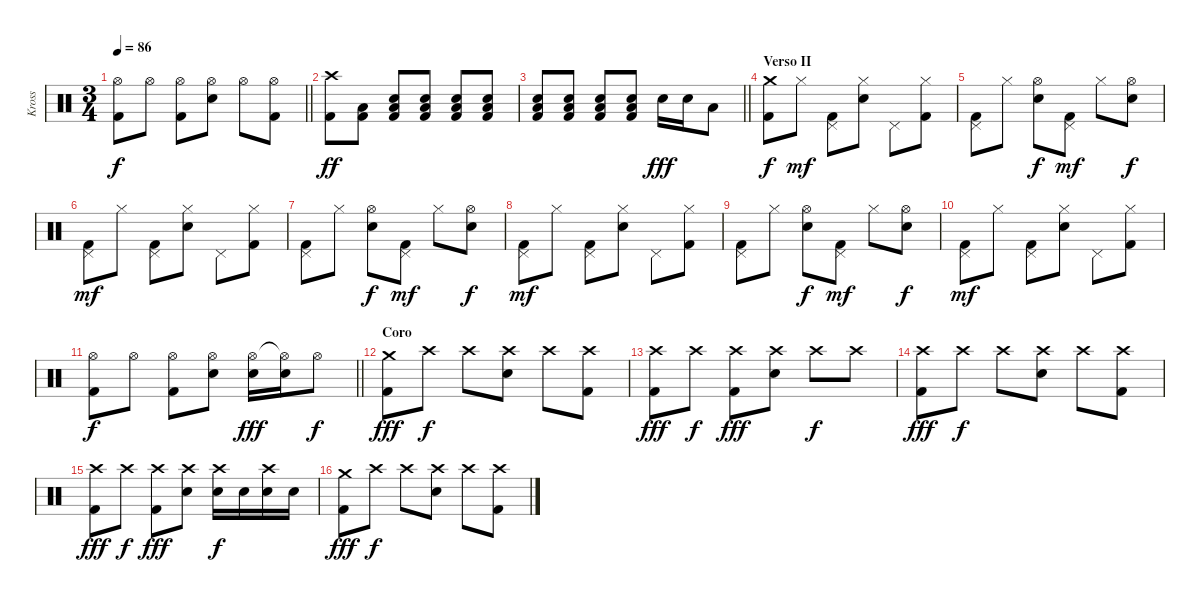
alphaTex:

\track ("Kross" "Kross") {instrument percussion}
\staff {score}
\articulation defaults
\ts (3 4)
\tempo 86
\clef neutral
\barLineRight lightlight
\ks c
("Hi-Hat (open)" "Kick (hit) 2").8{dy f} "Hi-Hat (open)".8 ("Hi-Hat (open)" "Kick (hit) 2").8 ("Hi-Hat (open)" "Electric Snare (hit)").8 "Hi-Hat (open)".8 ("Hi-Hat (open)" "Kick (hit) 2").8 |
("Crash high (hit)" "Kick (hit) 2").8{dy ff} ("Low Floor Tom (hit)" "Kick (hit) 2").8 ("Electric Snare (hit)" "Low Floor Tom (hit)" "Kick (hit) 2").8 ("Electric Snare (hit)" "Low Floor Tom (hit)" "Kick (hit) 2").8 ("Electric Snare (hit)" "Low Floor Tom (hit)" "Kick (hit) 2").8 ("Electric Snare (hit)" "Low Floor Tom (hit)" "Kick (hit) 2").8 |
\barLineRight lightlight
("Electric Snare (hit)" "Low Floor Tom (hit)" "Kick (hit) 2").8 ("Electric Snare (hit)" "Low Floor Tom (hit)" "Kick (hit) 2").8 ("Electric Snare (hit)" "Low Floor Tom (hit)" "Kick (hit) 2").8 ("Electric Snare (hit)" "Low Floor Tom (hit)" "Kick (hit) 2").8 "Electric Snare (hit)".16{dy fff} "Electric Snare (hit)".16 "Low Tom (hit)".8 |
\section ("" "Verso II")
("Crash medium (hit)" "Kick (hit) 2").8{dy f} "Hi-Hat (closed)".8{dy mf} ("Pedal Hi-Hat (hit)" "Kick (hit) 2").8 ("Hi-Hat (closed)" "Electric Snare (hit)").8 "Pedal Hi-Hat (hit)".8 ("Hi-Hat (closed)" "Kick (hit) 2").8 |
("Pedal Hi-Hat (hit)" "Kick (hit) 2").8 "Hi-Hat (closed)".8 ("Hi-Hat (open)" "Electric Snare (hit)").8{dy f} ("Pedal Hi-Hat (hit)" "Kick (hit) 2").8{dy mf} "Hi-Hat (closed)".8 ("Hi-Hat (open)" "Electric Snare (hit)").8{dy f} |
("Pedal Hi-Hat (hit)" "Kick (hit) 2").8{dy mf} "Hi-Hat (closed)".8 ("Pedal Hi-Hat (hit)" "Kick (hit) 2").8 ("Hi-Hat (closed)" "Electric Snare (hit)").8 "Pedal Hi-Hat (hit)".8 ("Hi-Hat (closed)" "Kick (hit) 2").8 |
("Pedal Hi-Hat (hit)" "Kick (hit) 2").8 "Hi-Hat (closed)".8 ("Hi-Hat (open)" "Electric Snare (hit)").8{dy f} ("Pedal Hi-Hat (hit)" "Kick (hit) 2").8{dy mf} "Hi-Hat (closed)".8 ("Hi-Hat (open)" "Electric Snare (hit)").8{dy f} |
("Pedal Hi-Hat (hit)" "Kick (hit) 2").8{dy mf} "Hi-Hat (closed)".8 ("Pedal Hi-Hat (hit)" "Kick (hit) 2").8 ("Hi-Hat (closed)" "Electric Snare (hit)").8 "Pedal Hi-Hat (hit)".8 ("Hi-Hat (closed)" "Kick (hit) 2").8 |
("Pedal Hi-Hat (hit)" "Kick (hit) 2").8 "Hi-Hat (closed)".8 ("Hi-Hat (open)" "Electric Snare (hit)").8{dy f} ("Pedal Hi-Hat (hit)" "Kick (hit) 2").8{dy mf} "Hi-Hat (closed)".8 ("Hi-Hat (open)" "Electric Snare (hit)").8{dy f} |
("Pedal Hi-Hat (hit)" "Kick (hit) 2").8{dy mf} "Hi-Hat (closed)".8 ("Pedal Hi-Hat (hit)" "Kick (hit) 2").8 ("Hi-Hat (closed)" "Electric Snare (hit)").8 "Pedal Hi-Hat (hit)".8 ("Hi-Hat (closed)" "Kick (hit) 2").8 |
\barLineRight lightlight
("Hi-Hat (open)" "Kick (hit) 2").8{dy f} "Hi-Hat (open)".8 ("Hi-Hat (open)" "Kick (hit) 2").8 ("Hi-Hat (open)" "Electric Snare (hit)").8 ("Hi-Hat (open)" "Electric Snare (hit)").16{dy fff} ("Hi-Hat (open)"{t} "Electric Snare (hit)").16 "Hi-Hat (open)".8{dy f} |
\section ("" "Coro")
("Crash medium (hit)" "Kick (hit) 2").8{dy fff} "Crash high (hit)".8{dy f} "Crash high (hit)".8 ("Crash high (hit)" "Electric Snare (hit)").8 "Crash high (hit)".8 ("Crash high (hit)" "Kick (hit) 2").8 |
("Crash high (hit)" "Kick (hit) 2").8{dy fff} "Crash high (hit)".8{dy f} ("Crash high (hit)" "Kick (hit) 2").8{dy fff} ("Crash high (hit)" "Electric Snare (hit)").8 "Crash high (hit)".8{dy f} "Crash high (hit)".8 |
("Crash high (hit)" "Kick (hit) 2").8{dy fff} "Crash high (hit)".8{dy f} "Crash high (hit)".8 ("Crash high (hit)" "Electric Snare (hit)").8 "Crash high (hit)".8 ("Crash high (hit)" "Kick (hit) 2").8 |
("Crash high (hit)" "Kick (hit) 2").8{dy fff} "Crash high (hit)".8{dy f} ("Crash high (hit)" "Kick (hit) 2").8{dy fff} ("Crash high (hit)" "Electric Snare (hit)").8 ("Crash high (hit)" "Electric Snare (hit)").16{dy f} "Electric Snare (hit)".16 ("Crash high (hit)" "Electric Snare (hit)").16 "Electric Snare (hit)".16 |
("Crash medium (hit)" "Kick (hit) 2").8{dy fff} "Crash high (hit)".8{dy f} "Crash high (hit)".8 ("Crash high (hit)" "Electric Snare (hit)").8 "Crash high (hit)".8 ("Crash high (hit)" "Kick (hit) 2").8
